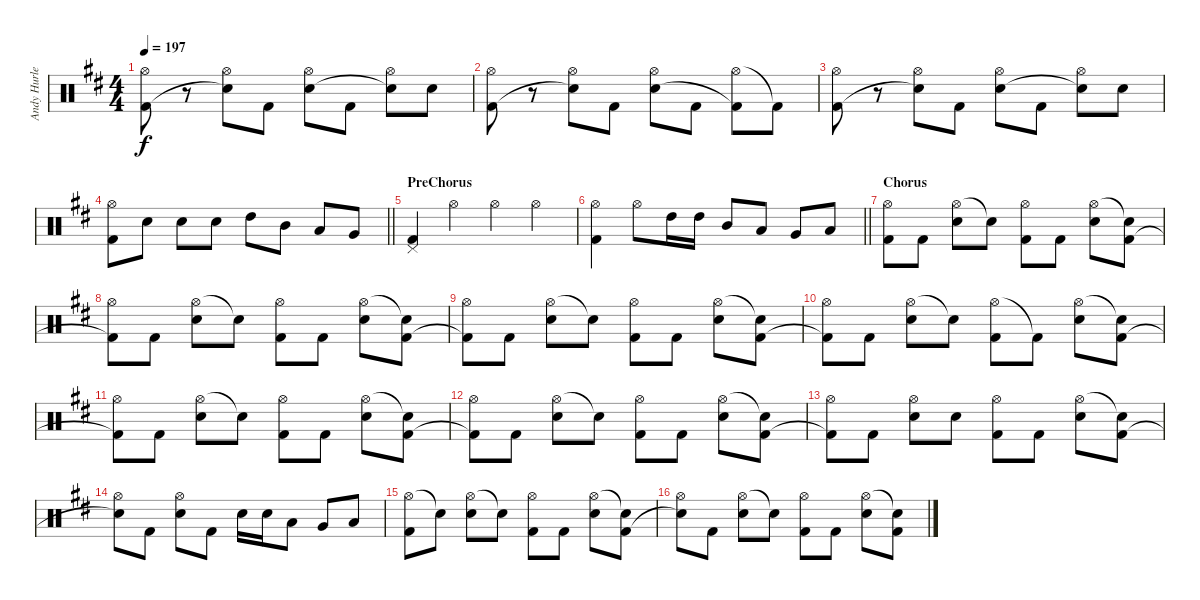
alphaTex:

\track ("Andy Hurley (Drums)" "Andy Hurle") {instrument percussion}
\staff {score}
\articulation defaults
\ts (4 4)
\tempo 197
\clef neutral
\ks d
("Hi-Hat (open)" "Kick (hit) 2").8{dy f} r.8 ("Hi-Hat (open)" "Snare (hit)"{t}).8 "Kick (hit) 2".8 ("Hi-Hat (open)" "Electric Snare (hit)").8 "Kick (hit) 2".8 ("Hi-Hat (open)" "Snare (hit)"{t}).8 "Electric Snare (hit)".8 |
("Hi-Hat (open)" "Kick (hit) 2").8 r.8 ("Hi-Hat (open)" "Snare (hit)"{t}).8 "Kick (hit) 2".8 ("Hi-Hat (open)" "Electric Snare (hit)").8 "Kick (hit) 2".8 ("Hi-Hat (open)" "Kick (hit) 2"{t}).8 "Kick (hit) 2"{t}.8 |
("Hi-Hat (open)" "Kick (hit) 2").8 r.8 ("Hi-Hat (open)" "Snare (hit)"{t}).8 "Kick (hit) 2".8 ("Hi-Hat (open)" "Electric Snare (hit)").8 "Kick (hit) 2".8 ("Hi-Hat (open)" "Snare (hit)"{t}).8 "Electric Snare (hit)".8 |
\barLineRight lightlight
("Hi-Hat (open)" "Kick (hit) 2").8 "Electric Snare (hit)".8 "Electric Snare (hit)".8 "Electric Snare (hit)".8 "High Tom (hit)".8 "Mid Tom (hit)".8 "Low Tom (hit)".8 "Very Low Tom (hit)".8 |
\section ("" "PreChorus")
("Pedal Hi-Hat (hit)" "Kick (hit) 2").4 "Hi-Hat (open)".4 "Hi-Hat (open)".4 "Hi-Hat (open)".4 |
\barLineRight lightlight
("Hi-Hat (open)" "Kick (hit) 2").4 "Hi-Hat (open)".8 "High Tom (hit)".16 "High Tom (hit)".16 "Mid Tom (hit)".8 "Low Tom (hit)".8 "Very Low Tom (hit)".8 "Low Floor Tom (hit)".8 |
\section ("" "Chorus")
("Hi-Hat (open)" "Kick (hit) 2").8 "Kick (hit) 2".8 ("Hi-Hat (open)" "Electric Snare (hit)").8 "Snare (hit)"{t}.8 ("Hi-Hat (open)" "Kick (hit) 2").8 "Kick (hit) 2".8 ("Hi-Hat (open)" "Electric Snare (hit)").8 ("Snare (hit)"{t} "Kick (hit) 2").8 |
("Hi-Hat (open)" "Kick (hit) 2"{t}).8 "Kick (hit) 2".8 ("Hi-Hat (open)" "Electric Snare (hit)").8 "Snare (hit)"{t}.8 ("Hi-Hat (open)" "Kick (hit) 2").8 "Kick (hit) 2".8 ("Hi-Hat (open)" "Electric Snare (hit)").8 ("Snare (hit)"{t} "Kick (hit) 2").8 |
("Hi-Hat (open)" "Kick (hit) 2"{t}).8 "Kick (hit) 2".8 ("Hi-Hat (open)" "Electric Snare (hit)").8 "Snare (hit)"{t}.8 ("Hi-Hat (open)" "Kick (hit) 2").8 "Kick (hit) 2".8 ("Hi-Hat (open)" "Electric Snare (hit)").8 ("Snare (hit)"{t} "Kick (hit) 2").8 |
("Hi-Hat (open)" "Kick (hit) 2"{t}).8 "Kick (hit) 2".8 ("Hi-Hat (open)" "Electric Snare (hit)").8 "Snare (hit)"{t}.8 ("Hi-Hat (open)" "Kick (hit) 2").8 "Kick (hit) 2"{t}.8 ("Hi-Hat (open)" "Electric Snare (hit)").8 ("Snare (hit)"{t} "Kick (hit) 2").8 |
("Hi-Hat (open)" "Kick (hit) 2"{t}).8 "Kick (hit) 2".8 ("Hi-Hat (open)" "Electric Snare (hit)").8 "Snare (hit)"{t}.8 ("Hi-Hat (open)" "Kick (hit) 2").8 "Kick (hit) 2".8 ("Hi-Hat (open)" "Electric Snare (hit)").8 ("Snare (hit)"{t} "Kick (hit) 2").8 |
("Hi-Hat (open)" "Kick (hit) 2"{t}).8 "Kick (hit) 2".8 ("Hi-Hat (open)" "Electric Snare (hit)").8 "Snare (hit)"{t}.8 ("Hi-Hat (open)" "Kick (hit) 2").8 "Kick (hit) 2".8 ("Hi-Hat (open)" "Electric Snare (hit)").8 ("Snare (hit)"{t} "Kick (hit) 2").8 |
("Hi-Hat (open)" "Kick (hit) 2"{t}).8 "Kick (hit) 2".8 ("Hi-Hat (open)" "Electric Snare (hit)").8 "Electric Snare (hit)".8 ("Hi-Hat (open)" "Kick (hit) 2").8 "Kick (hit) 2".8 ("Hi-Hat (open)" "Electric Snare (hit)").8 ("Snare (hit)"{t} "Kick (hit) 2").8 |
("Hi-Hat (open)" "Snare (hit)"{t}).8 "Kick (hit) 2".8 ("Hi-Hat (open)" "Electric Snare (hit)").8 "Kick (hit) 2".8 "Electric Snare (hit)".16 "Electric Snare (hit)".16 "Low Tom (hit)".8 "Very Low Tom (hit)".8 "Low Floor Tom (hit)".8 |
("Hi-Hat (open)" "Kick (hit) 2").8 "Snare (hit)"{t}.8 ("Hi-Hat (open)" "Electric Snare (hit)").8 "Snare (hit)"{t}.8 ("Hi-Hat (open)" "Kick (hit) 2").8 "Kick (hit) 2".8 ("Hi-Hat (open)" "Electric Snare (hit)").8 ("Snare (hit)"{t} "Kick (hit) 2").8 |
("Hi-Hat (open)" "Snare (hit)"{t}).8 "Kick (hit) 2".8 ("Hi-Hat (open)" "Electric Snare (hit)").8 "Snare (hit)"{t}.8 ("Hi-Hat (open)" "Kick (hit) 2").8 "Kick (hit) 2".8 ("Hi-Hat (open)" "Electric Snare (hit)").8 ("Snare (hit)"{t} "Kick (hit) 2").8
